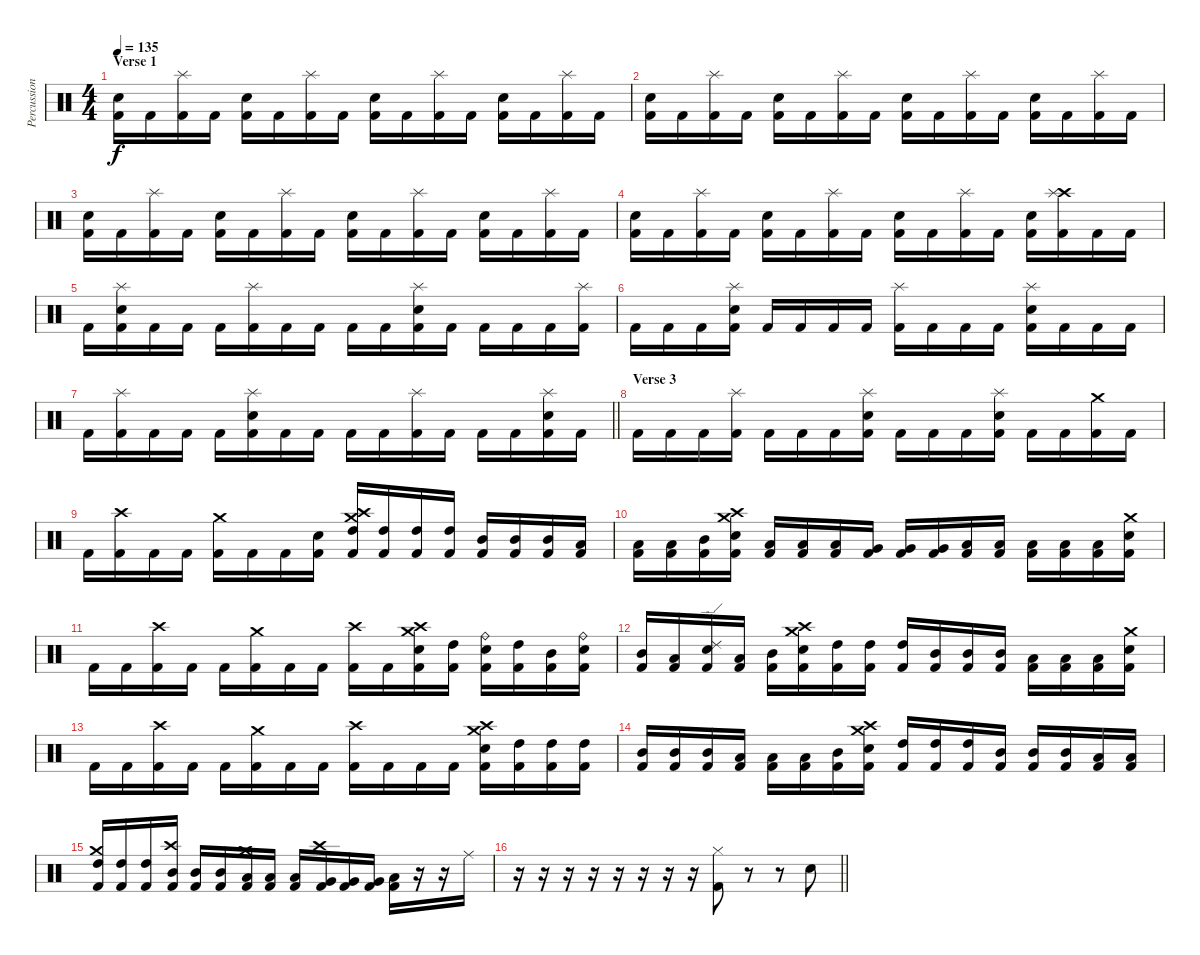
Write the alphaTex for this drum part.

\track ("Percussion" "Percussion") {instrument percussion}
\staff {score}
\articulation defaults
\ts (4 4)
\section ("" "Verse 1")
\tempo 135
\clef neutral
\ks c
("Electric Snare (hit)" "Kick (hit) 2").16{dy f} "Kick (hit) 2".16 ("Splash (hit)" "Kick (hit) 2").16 "Kick (hit) 2".16 ("Electric Snare (hit)" "Kick (hit) 2").16 "Kick (hit) 2".16 ("Splash (hit)" "Kick (hit) 2").16 "Kick (hit) 2".16 ("Electric Snare (hit)" "Kick (hit) 2").16 "Kick (hit) 2".16 ("Splash (hit)" "Kick (hit) 2").16 "Kick (hit) 2".16 ("Electric Snare (hit)" "Kick (hit) 2").16 "Kick (hit) 2".16 ("Splash (hit)" "Kick (hit) 2").16 "Kick (hit) 2".16 |
("Electric Snare (hit)" "Kick (hit) 2").16 "Kick (hit) 2".16 ("Splash (hit)" "Kick (hit) 2").16 "Kick (hit) 2".16 ("Electric Snare (hit)" "Kick (hit) 2").16 "Kick (hit) 2".16 ("Splash (hit)" "Kick (hit) 2").16 "Kick (hit) 2".16 ("Electric Snare (hit)" "Kick (hit) 2").16 "Kick (hit) 2".16 ("Splash (hit)" "Kick (hit) 2").16 "Kick (hit) 2".16 ("Electric Snare (hit)" "Kick (hit) 2").16 "Kick (hit) 2".16 ("Splash (hit)" "Kick (hit) 2").16 "Kick (hit) 2".16 |
("Electric Snare (hit)" "Kick (hit) 2").16 "Kick (hit) 2".16 ("Splash (hit)" "Kick (hit) 2").16 "Kick (hit) 2".16 ("Electric Snare (hit)" "Kick (hit) 2").16 "Kick (hit) 2".16 ("Splash (hit)" "Kick (hit) 2").16 "Kick (hit) 2".16 ("Electric Snare (hit)" "Kick (hit) 2").16 "Kick (hit) 2".16 ("Splash (hit)" "Kick (hit) 2").16 "Kick (hit) 2".16 ("Electric Snare (hit)" "Kick (hit) 2").16 "Kick (hit) 2".16 ("Splash (hit)" "Kick (hit) 2").16 "Kick (hit) 2".16 |
("Electric Snare (hit)" "Kick (hit) 2").16 "Kick (hit) 2".16 ("Splash (hit)" "Kick (hit) 2").16 "Kick (hit) 2".16 ("Electric Snare (hit)" "Kick (hit) 2").16 "Kick (hit) 2".16 ("Splash (hit)" "Kick (hit) 2").16 "Kick (hit) 2".16 ("Electric Snare (hit)" "Kick (hit) 2").16 "Kick (hit) 2".16 ("Splash (hit)" "Kick (hit) 2").16 "Kick (hit) 2".16 ("Electric Snare (hit)" "Kick (hit) 2").16 ("Crash high (hit)" "Splash (hit)" "Kick (hit) 2").16 "Kick (hit) 2".16 "Kick (hit) 2".16 |
"Kick (hit) 2".16 ("Splash (hit)" "Electric Snare (hit)" "Kick (hit) 2").16 "Kick (hit) 2".16 "Kick (hit) 2".16 "Kick (hit) 2".16 ("Splash (hit)" "Kick (hit) 2").16 "Kick (hit) 2".16 "Kick (hit) 2".16 "Kick (hit) 2".16 "Kick (hit) 2".16 ("Splash (hit)" "Electric Snare (hit)" "Kick (hit) 2").16 "Kick (hit) 2".16 "Kick (hit) 2".16 "Kick (hit) 2".16 "Kick (hit) 2".16 ("Splash (hit)" "Kick (hit) 2").16 |
"Kick (hit) 2".16 "Kick (hit) 2".16 "Kick (hit) 2".16 ("Splash (hit)" "Electric Snare (hit)" "Kick (hit) 2").16 "Kick (hit) 2".16 "Kick (hit) 2".16 "Kick (hit) 2".16 "Kick (hit) 2".16 ("Splash (hit)" "Kick (hit) 2").16 "Kick (hit) 2".16 "Kick (hit) 2".16 "Kick (hit) 2".16 ("Splash (hit)" "Electric Snare (hit)" "Kick (hit) 2").16 "Kick (hit) 2".16 "Kick (hit) 2".16 "Kick (hit) 2".16 |
\barLineRight lightlight "Kick (hit) 2".16
("Splash (hit)" "Kick (hit) 2").16 "Kick (hit) 2".16 "Kick (hit) 2".16 "Kick (hit) 2".16 ("Splash (hit)" "Electric Snare (hit)" "Kick (hit) 2").16 "Kick (hit) 2".16 "Kick (hit) 2".16 "Kick (hit) 2".16 "Kick (hit) 2".16 ("Splash (hit)" "Kick (hit) 2").16 "Kick (hit) 2".16 "Kick (hit) 2".16 "Kick (hit) 2".16 ("Splash (hit)" "Electric Snare (hit)" "Kick (hit) 2").16 "Kick (hit) 2".16 |
\section ("" "Verse 3")
"Kick (hit) 2".16 "Kick (hit) 2".16 "Kick (hit) 2".16 ("Splash (hit)" "Kick (hit) 2").16 "Kick (hit) 2".16 "Kick (hit) 2".16 "Kick (hit) 2".16 ("Splash (hit)" "Electric Snare (hit)" "Kick (hit) 2").16 "Kick (hit) 2".16 "Kick (hit) 2".16 "Kick (hit) 2".16 ("Splash (hit)" "Electric Snare (hit)" "Kick (hit) 2").16 "Kick (hit) 2".16 "Kick (hit) 2".16 ("Crash medium (hit)" "Kick (hit) 2").16 "Kick (hit) 2".16 |
"Kick (hit) 2".16 ("Crash high (hit)" "Kick (hit) 2").16 "Kick (hit) 2".16 "Kick (hit) 2".16 ("Crash medium (hit)" "Kick (hit) 2").16 "Kick (hit) 2".16 "Kick (hit) 2".16 ("Electric Snare (hit)" "Kick (hit) 2").16 ("Crash medium (hit)" "Crash high (hit)" "High Tom (hit)" "Kick (hit) 2").16 ("High Tom (hit)" "Kick (hit) 2").16 ("High Tom (hit)" "Kick (hit) 2").16 ("High Tom (hit)" "Kick (hit) 2").16 ("Mid Tom (hit)" "Kick (hit) 2").16 ("Mid Tom (hit)" "Kick (hit) 2").16 ("Mid Tom (hit)" "Kick (hit) 2").16 ("Low Tom (hit)" "Kick (hit) 2").16 |
("Low Tom (hit)" "Kick (hit) 2").16 ("Low Tom (hit)" "Kick (hit) 2").16 ("Mid Tom (hit)" "Kick (hit) 2").16 ("Crash medium (hit)" "Crash high (hit)" "Electric Snare (hit)" "Kick (hit) 2").16 ("Low Tom (hit)" "Kick (hit) 2").16 ("Low Tom (hit)" "Kick (hit) 2").16 ("Low Tom (hit)" "Kick (hit) 2").16 ("Very Low Tom (hit)" "Kick (hit) 2").16 ("Very Low Tom (hit)" "Kick (hit) 2").16 ("Very Low Tom (hit)" "Kick (hit) 2").16 ("Low Floor Tom (hit)" "Kick (hit) 2").16 ("Low Floor Tom (hit)" "Kick (hit) 2").16 ("Low Floor Tom (hit)" "Kick (hit) 2").16 ("Low Floor Tom (hit)" "Kick (hit) 2").16 ("Low Tom (hit)" "Kick (hit) 2").16 ("Crash medium (hit)" "Electric Snare (hit)" "Kick (hit) 2").16 |
"Kick (hit) 2".16 "Kick (hit) 2".16 ("Crash high (hit)" "Kick (hit) 2").16 "Kick (hit) 2".16 "Kick (hit) 2".16 ("Crash medium (hit)" "Kick (hit) 2").16 "Kick (hit) 2".16 "Kick (hit) 2".16 ("Crash high (hit)" "Kick (hit) 2").16 "Kick (hit) 2".16 ("Crash medium (hit)" "Crash high (hit)" "Electric Snare (hit)" "Kick (hit) 2").16 ("High Tom (hit)" "Kick (hit) 2").16 ("Ride (bell)" "Electric Snare (hit)" "Kick (hit) 2").16 ("High Tom (hit)" "Kick (hit) 2").16 ("Mid Tom (hit)" "Kick (hit) 2").16 ("Ride (bell)" "Electric Snare (hit)" "Kick (hit) 2").16 |
("Mid Tom (hit)" "Kick (hit) 2").16 ("Low Tom (hit)" "Kick (hit) 2").16 ("Ride (edge) 2" "Electric Snare (hit)" "Kick (hit) 2").16 ("Low Tom (hit)" "Kick (hit) 2").16 ("Mid Tom (hit)" "Kick (hit) 2").16 ("Crash medium (hit)" "Crash high (hit)" "Electric Snare (hit)" "Kick (hit) 2").16 ("High Tom (hit)" "Kick (hit) 2").16 ("High Tom (hit)" "Kick (hit) 2").16 ("High Tom (hit)" "Kick (hit) 2").16 ("Mid Tom (hit)" "Kick (hit) 2").16 ("Mid Tom (hit)" "Kick (hit) 2").16 ("Mid Tom (hit)" "Kick (hit) 2").16 ("Low Tom (hit)" "Kick (hit) 2").16 ("Low Tom (hit)" "Kick (hit) 2").16 ("Low Tom (hit)" "Kick (hit) 2").16 ("Crash medium (hit)" "Electric Snare (hit)" "Kick (hit) 2").16 |
"Kick (hit) 2".16 "Kick (hit) 2".16 ("Crash high (hit)" "Kick (hit) 2").16 "Kick (hit) 2".16 "Kick (hit) 2".16 ("Crash medium (hit)" "Kick (hit) 2").16 "Kick (hit) 2".16 "Kick (hit) 2".16 ("Crash high (hit)" "Kick (hit) 2").16 "Kick (hit) 2".16 "Kick (hit) 2".16 "Kick (hit) 2".16 ("Crash medium (hit)" "Crash high (hit)" "Electric Snare (hit)" "Kick (hit) 2").16 ("High Tom (hit)" "Kick (hit) 2").16 ("High Tom (hit)" "Kick (hit) 2").16 ("High Tom (hit)" "Kick (hit) 2").16 |
("Mid Tom (hit)" "Kick (hit) 2").16 ("Mid Tom (hit)" "Kick (hit) 2").16 ("Mid Tom (hit)" "Kick (hit) 2").16 ("Low Tom (hit)" "Kick (hit) 2").16 ("Low Tom (hit)" "Kick (hit) 2").16 ("Low Tom (hit)" "Kick (hit) 2").16 ("Mid Tom (hit)" "Kick (hit) 2").16 ("Crash medium (hit)" "Crash high (hit)" "Electric Snare (hit)" "Kick (hit) 2").16 ("High Tom (hit)" "Kick (hit) 2").16 ("High Tom (hit)" "Kick (hit) 2").16 ("High Tom (hit)" "Kick (hit) 2").16 ("Mid Tom (hit)" "Kick (hit) 2").16 ("Mid Tom (hit)" "Kick (hit) 2").16 ("Mid Tom (hit)" "Kick (hit) 2").16 ("Low Tom (hit)" "Kick (hit) 2").16 ("Low Tom (hit)" "Kick (hit) 2").16 |
("Crash medium (hit)" "High Tom (hit)" "Kick (hit) 2").16 ("High Tom (hit)" "Kick (hit) 2").16 ("High Tom (hit)" "Kick (hit) 2").16 ("Crash high (hit)" "Mid Tom (hit)" "Kick (hit) 2").16 ("Mid Tom (hit)" "Kick (hit) 2").16 ("Mid Tom (hit)" "Kick (hit) 2").16 ("Crash medium (hit)" "Low Tom (hit)" "Kick (hit) 2").16 ("Low Tom (hit)" "Kick (hit) 2").16 ("Low Tom (hit)" "Kick (hit) 2").16 ("Crash high (hit)" "Very Low Tom (hit)" "Kick (hit) 2").16 ("Very Low Tom (hit)" "Kick (hit) 2").16 ("Very Low Tom (hit)" "Kick (hit) 2").16 ("Low Floor Tom (hit)" "Kick (hit) 2").16 r.16 r.16 "Ride (middle)".16 |
\barLineRight lightlight
r.16 r.16 r.16 r.16 r.16 r.16 r.16 r.16 ("Hi-Hat (closed)" "Kick (hit) 2").8 r.8 r.8 "Electric Snare (hit)".8
